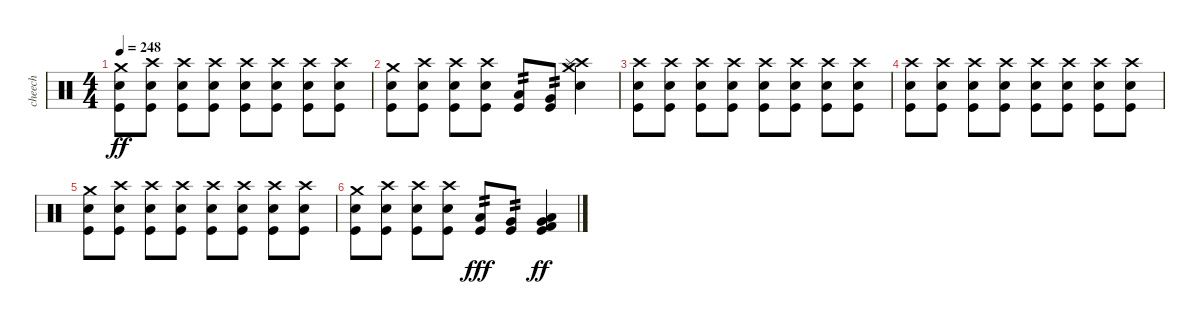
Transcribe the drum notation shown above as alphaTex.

\track ("cheech" "cheech") {instrument percussion}
\staff {score}
\articulation defaults
\ts (4 4)
\tempo 248
\clef neutral
\ks c
("Crash medium (hit)" "Electric Snare (hit)" "Kick (hit)").8{dy ff} ("Crash high (hit)" "Electric Snare (hit)" "Kick (hit)").8 ("Crash high (hit)" "Electric Snare (hit)" "Kick (hit)").8 ("Crash high (hit)" "Electric Snare (hit)" "Kick (hit)").8 ("Crash high (hit)" "Electric Snare (hit)" "Kick (hit)").8 ("Crash high (hit)" "Electric Snare (hit)" "Kick (hit)").8 ("Crash high (hit)" "Electric Snare (hit)" "Kick (hit)").8 ("Crash high (hit)" "Electric Snare (hit)" "Kick (hit)").8 |
("Crash medium (hit)" "Electric Snare (hit)" "Kick (hit)").8 ("Crash high (hit)" "Electric Snare (hit)" "Kick (hit)").8 ("Crash high (hit)" "Electric Snare (hit)" "Kick (hit)").8 ("Crash high (hit)" "Electric Snare (hit)" "Kick (hit)").8 ("Low Tom (hit)" "Kick (hit)").8{tp 2} ("Very Low Tom (hit)" "Kick (hit)").8{tp 2} ("Crash high (hit)" "Splash (hit)" "Crash medium (hit)" "Electric Snare (hit)").4 |
("Crash high (hit)" "Electric Snare (hit)" "Kick (hit)").8 ("Crash high (hit)" "Electric Snare (hit)" "Kick (hit)").8 ("Crash high (hit)" "Electric Snare (hit)" "Kick (hit)").8 ("Crash high (hit)" "Electric Snare (hit)" "Kick (hit)").8 ("Crash high (hit)" "Electric Snare (hit)" "Kick (hit)").8 ("Crash high (hit)" "Electric Snare (hit)" "Kick (hit)").8 ("Crash high (hit)" "Electric Snare (hit)" "Kick (hit)").8 ("Crash high (hit)" "Electric Snare (hit)" "Kick (hit)").8 |
("Crash high (hit)" "Electric Snare (hit)" "Kick (hit)").8 ("Crash high (hit)" "Electric Snare (hit)" "Kick (hit)").8 ("Crash high (hit)" "Electric Snare (hit)" "Kick (hit)").8 ("Crash high (hit)" "Electric Snare (hit)" "Kick (hit)").8 ("Crash high (hit)" "Electric Snare (hit)" "Kick (hit)").8 ("Crash high (hit)" "Electric Snare (hit)" "Kick (hit)").8 ("Crash high (hit)" "Electric Snare (hit)" "Kick (hit)").8 ("Crash high (hit)" "Electric Snare (hit)" "Kick (hit)").8 |
("Crash medium (hit)" "Electric Snare (hit)" "Kick (hit)").8 ("Crash high (hit)" "Electric Snare (hit)" "Kick (hit)").8 ("Crash high (hit)" "Electric Snare (hit)" "Kick (hit)").8 ("Crash high (hit)" "Electric Snare (hit)" "Kick (hit)").8 ("Crash high (hit)" "Electric Snare (hit)" "Kick (hit)").8 ("Crash high (hit)" "Electric Snare (hit)" "Kick (hit)").8 ("Crash high (hit)" "Electric Snare (hit)" "Kick (hit)").8 ("Crash high (hit)" "Electric Snare (hit)" "Kick (hit)").8 |
("Crash medium (hit)" "Electric Snare (hit)" "Kick (hit)").8 ("Crash high (hit)" "Electric Snare (hit)" "Kick (hit)").8 ("Crash high (hit)" "Electric Snare (hit)" "Kick (hit)").8 ("Crash high (hit)" "Electric Snare (hit)" "Kick (hit)").8 ("Low Tom (hit)" "Kick (hit)").8{tp 2 dy fff} ("Very Low Tom (hit)" "Kick (hit)").8{tp 2} ("Very Low Tom (hit)" "Low Floor Tom (hit)" "Kick (hit) 2" "Kick (hit)").4{dy ff}
